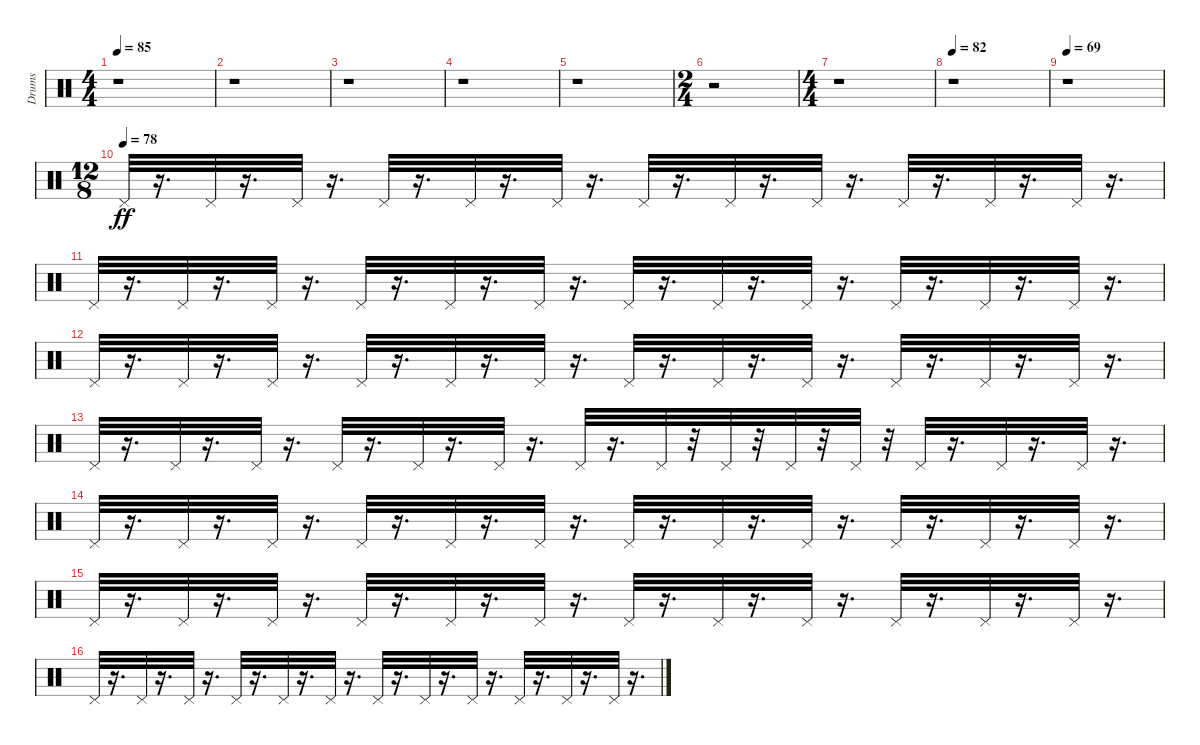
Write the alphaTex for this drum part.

\track ("Drums" "Drums") {instrument percussion}
\staff {score}
\articulation defaults
\ts (4 4)
\tempo 85
\clef neutral
\ks c
r.1{dy ff} |
r.1 |
r.1 |
r.1 |
r.1 |
\ts (2 4)
r.2 |
\ts (4 4)
r.1 |
\tempo 82
r.1 |
\tempo 69
r.1 |
\ts (12 8)
\tempo (78)
"Pedal Hi-Hat (hit)".32 r.16{d} "Pedal Hi-Hat (hit)".32 r.16{d} "Pedal Hi-Hat (hit)".32 r.16{d} "Pedal Hi-Hat (hit)".32 r.16{d} "Pedal Hi-Hat (hit)".32 r.16{d} "Pedal Hi-Hat (hit)".32 r.16{d} "Pedal Hi-Hat (hit)".32 r.16{d} "Pedal Hi-Hat (hit)".32 r.16{d} "Pedal Hi-Hat (hit)".32 r.16{d} "Pedal Hi-Hat (hit)".32 r.16{d} "Pedal Hi-Hat (hit)".32 r.16{d} "Pedal Hi-Hat (hit)".32 r.16{d} |
"Pedal Hi-Hat (hit)".32 r.16{d} "Pedal Hi-Hat (hit)".32 r.16{d} "Pedal Hi-Hat (hit)".32 r.16{d} "Pedal Hi-Hat (hit)".32 r.16{d} "Pedal Hi-Hat (hit)".32 r.16{d} "Pedal Hi-Hat (hit)".32 r.16{d} "Pedal Hi-Hat (hit)".32 r.16{d} "Pedal Hi-Hat (hit)".32 r.16{d} "Pedal Hi-Hat (hit)".32 r.16{d} "Pedal Hi-Hat (hit)".32 r.16{d} "Pedal Hi-Hat (hit)".32 r.16{d} "Pedal Hi-Hat (hit)".32 r.16{d} |
"Pedal Hi-Hat (hit)".32 r.16{d} "Pedal Hi-Hat (hit)".32 r.16{d} "Pedal Hi-Hat (hit)".32 r.16{d} "Pedal Hi-Hat (hit)".32 r.16{d} "Pedal Hi-Hat (hit)".32 r.16{d} "Pedal Hi-Hat (hit)".32 r.16{d} "Pedal Hi-Hat (hit)".32 r.16{d} "Pedal Hi-Hat (hit)".32 r.16{d} "Pedal Hi-Hat (hit)".32 r.16{d} "Pedal Hi-Hat (hit)".32 r.16{d} "Pedal Hi-Hat (hit)".32 r.16{d} "Pedal Hi-Hat (hit)".32 r.16{d} |
"Pedal Hi-Hat (hit)".32 r.16{d} "Pedal Hi-Hat (hit)".32 r.16{d} "Pedal Hi-Hat (hit)".32 r.16{d} "Pedal Hi-Hat (hit)".32 r.16{d} "Pedal Hi-Hat (hit)".32 r.16{d} "Pedal Hi-Hat (hit)".32 r.16{d} "Pedal Hi-Hat (hit)".32 r.16{d} "Pedal Hi-Hat (hit)".32 r.32 "Pedal Hi-Hat (hit)".32 r.32 "Pedal Hi-Hat (hit)".32 r.32 "Pedal Hi-Hat (hit)".32 r.32 "Pedal Hi-Hat (hit)".32 r.16{d} "Pedal Hi-Hat (hit)".32 r.16{d} "Pedal Hi-Hat (hit)".32 r.16{d} |
"Pedal Hi-Hat (hit)".32 r.16{d} "Pedal Hi-Hat (hit)".32 r.16{d} "Pedal Hi-Hat (hit)".32 r.16{d} "Pedal Hi-Hat (hit)".32 r.16{d} "Pedal Hi-Hat (hit)".32 r.16{d} "Pedal Hi-Hat (hit)".32 r.16{d} "Pedal Hi-Hat (hit)".32 r.16{d} "Pedal Hi-Hat (hit)".32 r.16{d} "Pedal Hi-Hat (hit)".32 r.16{d} "Pedal Hi-Hat (hit)".32 r.16{d} "Pedal Hi-Hat (hit)".32 r.16{d} "Pedal Hi-Hat (hit)".32 r.16{d} |
"Pedal Hi-Hat (hit)".32 r.16{d} "Pedal Hi-Hat (hit)".32 r.16{d} "Pedal Hi-Hat (hit)".32 r.16{d} "Pedal Hi-Hat (hit)".32 r.16{d} "Pedal Hi-Hat (hit)".32 r.16{d} "Pedal Hi-Hat (hit)".32 r.16{d} "Pedal Hi-Hat (hit)".32 r.16{d} "Pedal Hi-Hat (hit)".32 r.16{d} "Pedal Hi-Hat (hit)".32 r.16{d} "Pedal Hi-Hat (hit)".32 r.16{d} "Pedal Hi-Hat (hit)".32 r.16{d} "Pedal Hi-Hat (hit)".32 r.16{d} |
"Pedal Hi-Hat (hit)".32 r.16{d} "Pedal Hi-Hat (hit)".32 r.16{d} "Pedal Hi-Hat (hit)".32 r.16{d} "Pedal Hi-Hat (hit)".32 r.16{d} "Pedal Hi-Hat (hit)".32 r.16{d} "Pedal Hi-Hat (hit)".32 r.16{d} "Pedal Hi-Hat (hit)".32 r.16{d} "Pedal Hi-Hat (hit)".32 r.16{d} "Pedal Hi-Hat (hit)".32 r.16{d} "Pedal Hi-Hat (hit)".32 r.16{d} "Pedal Hi-Hat (hit)".32 r.16{d} "Pedal Hi-Hat (hit)".32 r.16{d}
